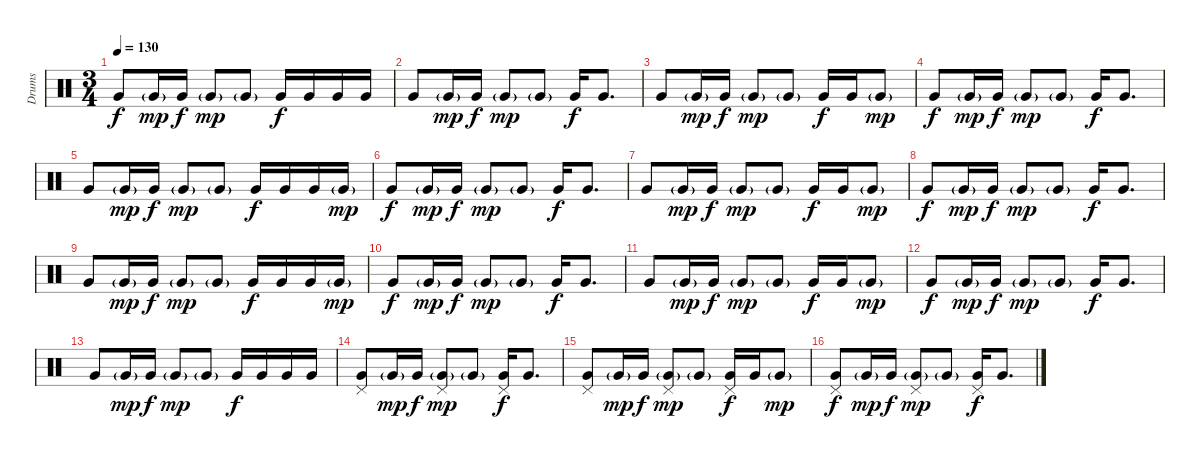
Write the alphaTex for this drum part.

\track ("Drums" "Drums") {instrument percussion}
\staff {score}
\articulation defaults
\ts (3 4)
\tempo 130
\clef neutral
\ks c "Very Low Tom (hit)".8{dy f} "Very Low Tom (hit)"{g}.16{dy mp} "Very Low Tom (hit)".16{dy f} "Very Low Tom (hit)"{g}.8{dy mp} "Very Low Tom (hit)"{g}.8 "Very Low Tom (hit)".16{dy f} "Very Low Tom (hit)".16 "Very Low Tom (hit)".16 "Very Low Tom (hit)".16
|
"Very Low Tom (hit)".8 "Very Low Tom (hit)"{g}.16{dy mp} "Very Low Tom (hit)".16{dy f} "Very Low Tom (hit)"{g}.8{dy mp} "Very Low Tom (hit)"{g}.8 "Very Low Tom (hit)".16{dy f} "Very Low Tom (hit)".8{d} |
"Very Low Tom (hit)".8{volume 12} "Very Low Tom (hit)"{g}.16{dy mp} "Very Low Tom (hit)".16{dy f} "Very Low Tom (hit)"{g}.8{dy mp} "Very Low Tom (hit)"{g}.8 "Very Low Tom (hit)".16{dy f} "Very Low Tom (hit)".16 "Very Low Tom (hit)"{g}.8{dy mp} |
"Very Low Tom (hit)".8{dy f} "Very Low Tom (hit)"{g}.16{dy mp} "Very Low Tom (hit)".16{dy f} "Very Low Tom (hit)"{g}.8{dy mp} "Very Low Tom (hit)"{g}.8 "Very Low Tom (hit)".16{dy f} "Very Low Tom (hit)".8{d} |
"Very Low Tom (hit)".8 "Very Low Tom (hit)"{g}.16{dy mp} "Very Low Tom (hit)".16{dy f} "Very Low Tom (hit)"{g}.8{dy mp} "Very Low Tom (hit)"{g}.8 "Very Low Tom (hit)".16{dy f} "Very Low Tom (hit)".16 "Very Low Tom (hit)".16 "Very Low Tom (hit)"{g}.16{dy mp} |
"Very Low Tom (hit)".8{dy f} "Very Low Tom (hit)"{g}.16{dy mp} "Very Low Tom (hit)".16{dy f} "Very Low Tom (hit)"{g}.8{dy mp} "Very Low Tom (hit)"{g}.8 "Very Low Tom (hit)".16{dy f} "Very Low Tom (hit)".8{d} |
"Very Low Tom (hit)".8 "Very Low Tom (hit)"{g}.16{dy mp} "Very Low Tom (hit)".16{dy f} "Very Low Tom (hit)"{g}.8{dy mp} "Very Low Tom (hit)"{g}.8 "Very Low Tom (hit)".16{dy f} "Very Low Tom (hit)".16 "Very Low Tom (hit)"{g}.8{dy mp} |
"Very Low Tom (hit)".8{dy f} "Very Low Tom (hit)"{g}.16{dy mp} "Very Low Tom (hit)".16{dy f} "Very Low Tom (hit)"{g}.8{dy mp} "Very Low Tom (hit)"{g}.8 "Very Low Tom (hit)".16{dy f} "Very Low Tom (hit)".8{d} |
"Very Low Tom (hit)".8{volume 16} "Very Low Tom (hit)"{g}.16{dy mp} "Very Low Tom (hit)".16{dy f} "Very Low Tom (hit)"{g}.8{dy mp} "Very Low Tom (hit)"{g}.8 "Very Low Tom (hit)".16{dy f} "Very Low Tom (hit)".16 "Very Low Tom (hit)".16 "Very Low Tom (hit)"{g}.16{dy mp} |
"Very Low Tom (hit)".8{dy f} "Very Low Tom (hit)"{g}.16{dy mp} "Very Low Tom (hit)".16{dy f} "Very Low Tom (hit)"{g}.8{dy mp} "Very Low Tom (hit)"{g}.8 "Very Low Tom (hit)".16{dy f} "Very Low Tom (hit)".8{d} |
"Very Low Tom (hit)".8 "Very Low Tom (hit)"{g}.16{dy mp} "Very Low Tom (hit)".16{dy f} "Very Low Tom (hit)"{g}.8{dy mp} "Very Low Tom (hit)"{g}.8 "Very Low Tom (hit)".16{dy f} "Very Low Tom (hit)".16 "Very Low Tom (hit)"{g}.8{dy mp} |
"Very Low Tom (hit)".8{dy f} "Very Low Tom (hit)"{g}.16{dy mp} "Very Low Tom (hit)".16{dy f} "Very Low Tom (hit)"{g}.8{dy mp} "Very Low Tom (hit)"{g}.8 "Very Low Tom (hit)".16{dy f} "Very Low Tom (hit)".8{d} |
"Very Low Tom (hit)".8 "Very Low Tom (hit)"{g}.16{dy mp} "Very Low Tom (hit)".16{dy f} "Very Low Tom (hit)"{g}.8{dy mp} "Very Low Tom (hit)"{g}.8 "Very Low Tom (hit)".16{dy f} "Very Low Tom (hit)".16 "Very Low Tom (hit)".16 "Very Low Tom (hit)".16 |
("Pedal Hi-Hat (hit)" "Very Low Tom (hit)").8 "Very Low Tom (hit)"{g}.16{dy mp} "Very Low Tom (hit)".16{dy f} ("Pedal Hi-Hat (hit)" "Very Low Tom (hit)"{g}).8{dy mp} "Very Low Tom (hit)"{g}.8 ("Pedal Hi-Hat (hit)" "Very Low Tom (hit)").16{dy f} "Very Low Tom (hit)".8{d} |
("Pedal Hi-Hat (hit)" "Very Low Tom (hit)").8 "Very Low Tom (hit)"{g}.16{dy mp} "Very Low Tom (hit)".16{dy f} ("Pedal Hi-Hat (hit)" "Very Low Tom (hit)"{g}).8{dy mp} "Very Low Tom (hit)"{g}.8 ("Pedal Hi-Hat (hit)" "Very Low Tom (hit)").16{dy f} "Very Low Tom (hit)".16 "Very Low Tom (hit)"{g}.8{dy mp} |
("Pedal Hi-Hat (hit)" "Very Low Tom (hit)").8{dy f} "Very Low Tom (hit)"{g}.16{dy mp} "Very Low Tom (hit)".16{dy f} ("Pedal Hi-Hat (hit)" "Very Low Tom (hit)"{g}).8{dy mp} "Very Low Tom (hit)"{g}.8 ("Pedal Hi-Hat (hit)" "Very Low Tom (hit)").16{dy f} "Very Low Tom (hit)".8{d}
